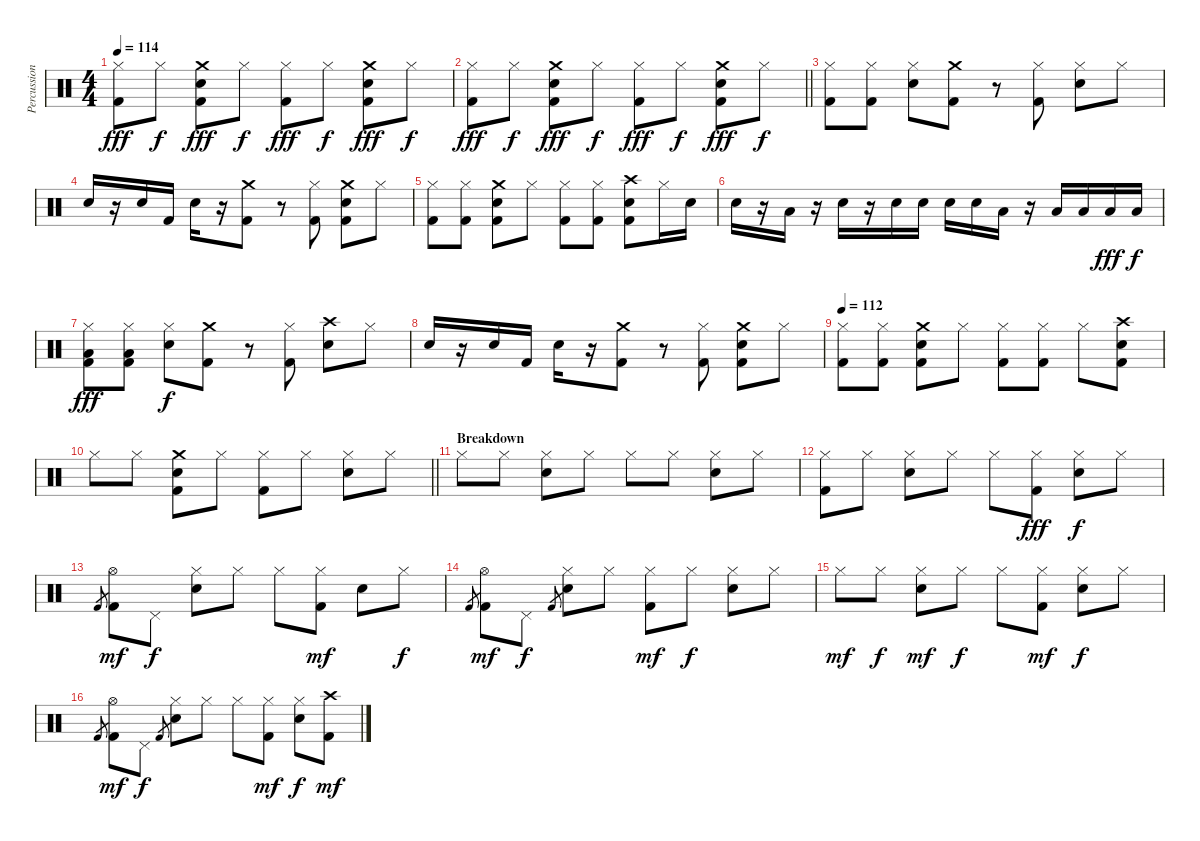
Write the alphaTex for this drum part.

\track ("Percussion" "Percussion") {instrument percussion}
\staff {score}
\articulation defaults
\ts (4 4)
\tempo 114
\clef neutral
\ks c
("Hi-Hat (closed)" "Kick (hit) 2").8{dy fff} "Hi-Hat (closed)".8{dy f} ("Crash medium (hit)" "Snare (hit) 2" "Kick (hit) 2").8{dy fff} "Hi-Hat (closed)".8{dy f} ("Hi-Hat (closed)" "Kick (hit) 2").8{dy fff} "Hi-Hat (closed)".8{dy f} ("Crash medium (hit)" "Snare (hit) 2" "Kick (hit) 2").8{dy fff} "Hi-Hat (closed)".8{dy f} |
\barLineRight lightlight
("Hi-Hat (closed)" "Kick (hit) 2").8{dy fff} "Hi-Hat (closed)".8{dy f} ("Crash medium (hit)" "Snare (hit) 2" "Kick (hit) 2").8{dy fff} "Hi-Hat (closed)".8{dy f} ("Hi-Hat (closed)" "Kick (hit) 2").8{dy fff} "Hi-Hat (closed)".8{dy f} ("Crash medium (hit)" "Snare (hit) 2" "Kick (hit) 2").8{dy fff} "Hi-Hat (closed)".8{dy f} |
("Hi-Hat (closed)" "Kick (hit) 2").8 ("Hi-Hat (closed)" "Kick (hit) 2").8 ("Hi-Hat (closed)" "Snare (hit) 2").8 ("Crash medium (hit)" "Kick (hit) 2").8 r.8 ("Hi-Hat (closed)" "Kick (hit) 2").8 ("Hi-Hat (closed)" "Snare (hit) 2").8 "Hi-Hat (closed)".8 |
"Snare (hit) 2".16 r.16 "Snare (hit) 2".16 "Kick (hit) 2".16 "Snare (hit) 2".16 r.16 ("Crash medium (hit)" "Kick (hit) 2").8 r.8 ("Hi-Hat (closed)" "Kick (hit) 2").8 ("Crash medium (hit)" "Snare (hit) 2" "Kick (hit) 2").8 "Hi-Hat (closed)".8 |
("Hi-Hat (closed)" "Kick (hit) 2").8 ("Hi-Hat (closed)" "Kick (hit) 2").8 ("Crash medium (hit)" "Snare (hit) 2" "Kick (hit) 2").8 "Hi-Hat (closed)".8 ("Hi-Hat (closed)" "Kick (hit) 2").8 ("Hi-Hat (closed)" "Kick (hit) 2").8 ("Crash high (hit)" "Snare (hit) 2" "Kick (hit) 2").8 "Hi-Hat (closed)".16 "Snare (hit) 2".16 |
"Snare (hit) 2".16 r.16 "Low Tom (hit)".16 r.16 "Snare (hit) 2".16 r.16 "Snare (hit) 2".16 "Snare (hit) 2".16 "Snare (hit) 2".16 "Snare (hit) 2".16 "Low Tom (hit)".16 r.16 "Low Tom (hit)".16 "Low Tom (hit)".16 "Low Tom (hit)".16{dy fff} "Low Tom (hit)".16{dy f} |
("Hi-Hat (closed)" "Low Floor Tom (hit)" "Kick (hit) 2").8{dy fff} ("Hi-Hat (closed)" "Low Floor Tom (hit)" "Kick (hit) 2").8 ("Hi-Hat (closed)" "Snare (hit) 2").8{dy f} ("Crash medium (hit)" "Kick (hit) 2").8 r.8 ("Hi-Hat (closed)" "Kick (hit) 2").8 ("Crash high (hit)" "Snare (hit) 2").8 "Hi-Hat (closed)".8 |
"Snare (hit) 2".16 r.16 "Snare (hit) 2".16 "Kick (hit) 2".16 "Snare (hit) 2".16 r.16 ("Crash medium (hit)" "Kick (hit) 2").8 r.8 ("Hi-Hat (closed)" "Kick (hit) 2").8 ("Crash medium (hit)" "Snare (hit) 2" "Kick (hit) 2").8 "Hi-Hat (closed)".8 |
\tempo 112
("Hi-Hat (closed)" "Kick (hit) 2").8 ("Hi-Hat (closed)" "Kick (hit) 2").8 ("Crash medium (hit)" "Snare (hit) 2" "Kick (hit) 2").8 "Hi-Hat (closed)".8 ("Hi-Hat (closed)" "Kick (hit) 2").8 ("Hi-Hat (closed)" "Kick (hit) 2").8 "Hi-Hat (closed)".8 ("Crash high (hit)" "Snare (hit) 2" "Kick (hit) 2").8 |
\barLineRight lightlight "Hi-Hat (closed)".8 "Hi-Hat (closed)".8
("Crash medium (hit)" "Snare (hit) 2" "Kick (hit) 2").8 "Hi-Hat (closed)".8 ("Hi-Hat (closed)" "Kick (hit) 2").8 "Hi-Hat (closed)".8 ("Hi-Hat (closed)" "Snare (hit) 2").8 "Hi-Hat (closed)".8 |
\section ("" "Breakdown")
"Hi-Hat (closed)".8 "Hi-Hat (closed)".8 ("Hi-Hat (closed)" "Snare (hit) 2").8 "Hi-Hat (closed)".8 "Hi-Hat (closed)".8 "Hi-Hat (closed)".8 ("Hi-Hat (closed)" "Snare (hit) 2").8 "Hi-Hat (closed)".8 |
("Hi-Hat (closed)" "Kick (hit) 2").8 "Hi-Hat (closed)".8 ("Hi-Hat (closed)" "Snare (hit) 2").8 "Hi-Hat (closed)".8 "Hi-Hat (closed)".8 ("Hi-Hat (closed)" "Kick (hit) 2").8{dy fff} ("Hi-Hat (closed)" "Snare (hit) 2").8{dy f} "Hi-Hat (closed)".8 |
"Kick (hit) 2".8{gr} ("Hi-Hat (open)" "Kick (hit) 2").8{dy mf} "Pedal Hi-Hat (hit)".8{dy f} ("Hi-Hat (closed)" "Snare (hit) 2").8 "Hi-Hat (closed)".8 "Hi-Hat (closed)".8 ("Hi-Hat (closed)" "Kick (hit) 2").8{dy mf} "Snare (hit) 2".8 "Hi-Hat (closed)".8{dy f} |
"Kick (hit) 2".8{gr} ("Hi-Hat (open)" "Kick (hit) 2").8{dy mf} "Pedal Hi-Hat (hit)".8{dy f} "Kick (hit) 2".8{gr} ("Hi-Hat (closed)" "Snare (hit) 2").8 "Hi-Hat (closed)".8 ("Hi-Hat (closed)" "Kick (hit) 2").8{dy mf} "Hi-Hat (closed)".8{dy f} ("Hi-Hat (closed)" "Snare (hit) 2").8 "Hi-Hat (closed)".8 |
"Hi-Hat (closed)".8{dy mf} "Hi-Hat (closed)".8{dy f} ("Hi-Hat (closed)" "Snare (hit) 2").8{dy mf} "Hi-Hat (closed)".8{dy f} "Hi-Hat (closed)".8 ("Hi-Hat (closed)" "Kick (hit) 2").8{dy mf} ("Hi-Hat (closed)" "Snare (hit) 2").8{dy f} "Hi-Hat (closed)".8 |
"Kick (hit) 2".8{gr} ("Hi-Hat (open)" "Kick (hit) 2").8{dy mf} "Pedal Hi-Hat (hit)".8{dy f} "Kick (hit) 2".8{gr} ("Hi-Hat (closed)" "Snare (hit) 2").8 "Hi-Hat (closed)".8 "Hi-Hat (closed)".8 ("Hi-Hat (closed)" "Kick (hit) 2").8{dy mf} ("Hi-Hat (closed)" "Snare (hit) 2").8{dy f} ("Crash high (hit)" "Kick (hit) 2").8{dy mf}
